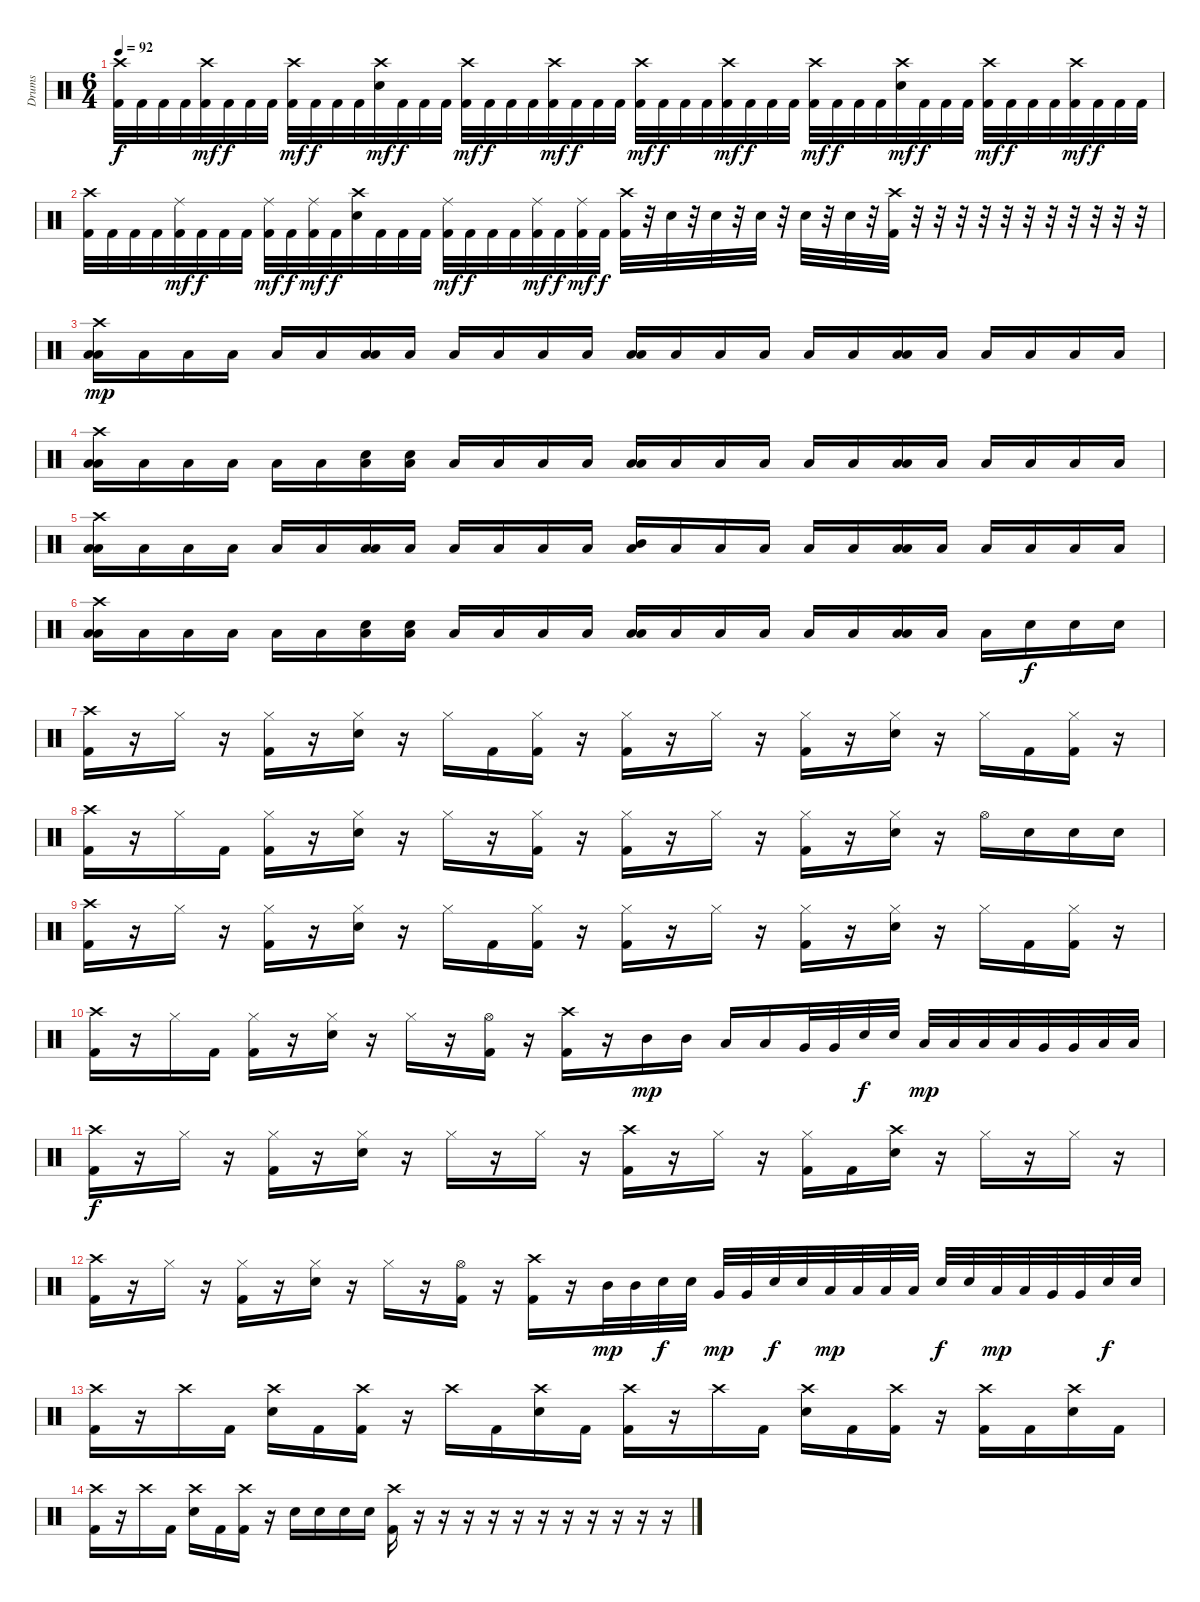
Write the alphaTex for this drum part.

\track ("Drums" "Drums") {instrument percussion}
\staff {score}
\articulation defaults
\ts (6 4)
\tempo 92
\clef neutral
\ks c
("Crash high (hit)" "Kick (hit) 2").32{dy f} "Kick (hit) 2".32 "Kick (hit) 2".32 "Kick (hit) 2".32 ("Crash high (hit)" "Kick (hit) 2").32{dy mf} "Kick (hit) 2".32{dy f} "Kick (hit) 2".32 "Kick (hit) 2".32 ("Crash high (hit)" "Kick (hit) 2").32{dy mf} "Kick (hit) 2".32{dy f} "Kick (hit) 2".32 "Kick (hit) 2".32 ("Crash high (hit)" "Electric Snare (hit)").32{dy mf} "Kick (hit) 2".32{dy f} "Kick (hit) 2".32 "Kick (hit) 2".32 ("Crash high (hit)" "Kick (hit) 2").32{dy mf} "Kick (hit) 2".32{dy f} "Kick (hit) 2".32 "Kick (hit) 2".32 ("Crash high (hit)" "Kick (hit) 2").32{dy mf} "Kick (hit) 2".32{dy f} "Kick (hit) 2".32 "Kick (hit) 2".32 ("Crash high (hit)" "Kick (hit) 2").32{dy mf} "Kick (hit) 2".32{dy f} "Kick (hit) 2".32 "Kick (hit) 2".32 ("Crash high (hit)" "Kick (hit) 2").32{dy mf} "Kick (hit) 2".32{dy f} "Kick (hit) 2".32 "Kick (hit) 2".32 ("Crash high (hit)" "Kick (hit) 2").32{dy mf} "Kick (hit) 2".32{dy f} "Kick (hit) 2".32 "Kick (hit) 2".32 ("Crash high (hit)" "Electric Snare (hit)").32{dy mf} "Kick (hit) 2".32{dy f} "Kick (hit) 2".32 "Kick (hit) 2".32 ("Crash high (hit)" "Kick (hit) 2").32{dy mf} "Kick (hit) 2".32{dy f} "Kick (hit) 2".32 "Kick (hit) 2".32 ("Crash high (hit)" "Kick (hit) 2").32{dy mf} "Kick (hit) 2".32{dy f} "Kick (hit) 2".32 "Kick (hit) 2".32 |
("Crash high (hit)" "Kick (hit) 2").32 "Kick (hit) 2".32 "Kick (hit) 2".32 "Kick (hit) 2".32 ("Ride (middle)" "Kick (hit) 2").32{dy mf} "Kick (hit) 2".32{dy f} "Kick (hit) 2".32 "Kick (hit) 2".32 ("Ride (middle)" "Kick (hit) 2").32{dy mf} "Kick (hit) 2".32{dy f} ("Ride (middle)" "Kick (hit) 2").32{dy mf} "Kick (hit) 2".32{dy f} ("Crash high (hit)" "Electric Snare (hit)").32 "Kick (hit) 2".32 "Kick (hit) 2".32 "Kick (hit) 2".32 ("Ride (middle)" "Kick (hit) 2").32{dy mf} "Kick (hit) 2".32{dy f} "Kick (hit) 2".32 "Kick (hit) 2".32 ("Ride (middle)" "Kick (hit) 2").32{dy mf} "Kick (hit) 2".32{dy f} ("Ride (middle)" "Kick (hit) 2").32{dy mf} "Kick (hit) 2".32{dy f} ("Crash high (hit)" "Kick (hit) 2").32 r.32 "Electric Snare (hit)".32 r.32 "Electric Snare (hit)".32 r.32 "Electric Snare (hit)".32 r.32 "Electric Snare (hit)".32 r.32 "Electric Snare (hit)".32 r.32 ("Crash high (hit)" "Kick (hit) 2").32 r.32 r.32 r.32 r.32 r.32 r.32 r.32 r.32 r.32 r.32 r.32 |
("Crash high (hit)" "Low Tom (hit)" "Low Floor Tom (hit)").16{dy mp} "Low Floor Tom (hit)".16 "Low Floor Tom (hit)".16 "Low Floor Tom (hit)".16 "Low Floor Tom (hit)".16 "Low Floor Tom (hit)".16 ("Low Tom (hit)" "Low Floor Tom (hit)").16 "Low Floor Tom (hit)".16 "Low Floor Tom (hit)".16 "Low Floor Tom (hit)".16 "Low Floor Tom (hit)".16 "Low Floor Tom (hit)".16 ("Low Tom (hit)" "Low Floor Tom (hit)").16 "Low Floor Tom (hit)".16 "Low Floor Tom (hit)".16 "Low Floor Tom (hit)".16 "Low Floor Tom (hit)".16 "Low Floor Tom (hit)".16 ("Low Tom (hit)" "Low Floor Tom (hit)").16 "Low Floor Tom (hit)".16 "Low Floor Tom (hit)".16 "Low Floor Tom (hit)".16 "Low Floor Tom (hit)".16 "Low Floor Tom (hit)".16 |
("Crash high (hit)" "Low Tom (hit)" "Low Floor Tom (hit)").16 "Low Floor Tom (hit)".16 "Low Floor Tom (hit)".16 "Low Floor Tom (hit)".16 "Low Floor Tom (hit)".16 "Low Floor Tom (hit)".16 ("Electric Snare (hit)" "Low Floor Tom (hit)").16 ("Electric Snare (hit)" "Low Floor Tom (hit)").16 "Low Floor Tom (hit)".16 "Low Floor Tom (hit)".16 "Low Floor Tom (hit)".16 "Low Floor Tom (hit)".16 ("Low Tom (hit)" "Low Floor Tom (hit)").16 "Low Floor Tom (hit)".16 "Low Floor Tom (hit)".16 "Low Floor Tom (hit)".16 "Low Floor Tom (hit)".16 "Low Floor Tom (hit)".16 ("Low Tom (hit)" "Low Floor Tom (hit)").16 "Low Floor Tom (hit)".16 "Low Floor Tom (hit)".16 "Low Floor Tom (hit)".16 "Low Floor Tom (hit)".16 "Low Floor Tom (hit)".16 |
("Crash high (hit)" "Low Tom (hit)" "Low Floor Tom (hit)").16 "Low Floor Tom (hit)".16 "Low Floor Tom (hit)".16 "Low Floor Tom (hit)".16 "Low Floor Tom (hit)".16 "Low Floor Tom (hit)".16 ("Low Tom (hit)" "Low Floor Tom (hit)").16 "Low Floor Tom (hit)".16 "Low Floor Tom (hit)".16 "Low Floor Tom (hit)".16 "Low Floor Tom (hit)".16 "Low Floor Tom (hit)".16 ("Mid Tom (hit)" "Low Floor Tom (hit)").16 "Low Floor Tom (hit)".16 "Low Floor Tom (hit)".16 "Low Floor Tom (hit)".16 "Low Floor Tom (hit)".16 "Low Floor Tom (hit)".16 ("Low Tom (hit)" "Low Floor Tom (hit)").16 "Low Floor Tom (hit)".16 "Low Floor Tom (hit)".16 "Low Floor Tom (hit)".16 "Low Floor Tom (hit)".16 "Low Floor Tom (hit)".16 |
("Crash high (hit)" "Low Tom (hit)" "Low Floor Tom (hit)").16 "Low Floor Tom (hit)".16 "Low Floor Tom (hit)".16 "Low Floor Tom (hit)".16 "Low Floor Tom (hit)".16 "Low Floor Tom (hit)".16 ("Electric Snare (hit)" "Low Floor Tom (hit)").16 ("Electric Snare (hit)" "Low Floor Tom (hit)").16 "Low Floor Tom (hit)".16 "Low Floor Tom (hit)".16 "Low Floor Tom (hit)".16 "Low Floor Tom (hit)".16 ("Low Tom (hit)" "Low Floor Tom (hit)").16 "Low Floor Tom (hit)".16 "Low Floor Tom (hit)".16 "Low Floor Tom (hit)".16 "Low Floor Tom (hit)".16 "Low Floor Tom (hit)".16 ("Low Tom (hit)" "Low Floor Tom (hit)").16 "Low Floor Tom (hit)".16 "Low Floor Tom (hit)".16 "Electric Snare (hit)".16{dy f} "Electric Snare (hit)".16 "Electric Snare (hit)".16 |
("Crash high (hit)" "Kick (hit) 2").16 r.16 "Hi-Hat (closed)".16 r.16 ("Hi-Hat (closed)" "Kick (hit) 2").16 r.16 ("Hi-Hat (closed)" "Electric Snare (hit)").16 r.16 "Hi-Hat (closed)".16 "Kick (hit) 2".16 ("Hi-Hat (closed)" "Kick (hit) 2").16 r.16 ("Hi-Hat (closed)" "Kick (hit) 2").16 r.16 "Hi-Hat (closed)".16 r.16 ("Hi-Hat (closed)" "Kick (hit) 2").16 r.16 ("Hi-Hat (closed)" "Electric Snare (hit)").16 r.16 "Hi-Hat (closed)".16 "Kick (hit) 2".16 ("Hi-Hat (closed)" "Kick (hit) 2").16 r.16 |
("Crash high (hit)" "Kick (hit) 2").16 r.16 "Hi-Hat (closed)".16 "Kick (hit) 2".16 ("Hi-Hat (closed)" "Kick (hit) 2").16 r.16 ("Hi-Hat (closed)" "Electric Snare (hit)").16 r.16 "Hi-Hat (closed)".16 r.16 ("Hi-Hat (closed)" "Kick (hit) 2").16 r.16 ("Hi-Hat (closed)" "Kick (hit) 2").16 r.16 "Hi-Hat (closed)".16 r.16 ("Hi-Hat (closed)" "Kick (hit) 2").16 r.16 ("Hi-Hat (closed)" "Electric Snare (hit)").16 r.16 "Hi-Hat (open)".16 "Electric Snare (hit)".16 "Electric Snare (hit)".16 "Electric Snare (hit)".16 |
("Crash high (hit)" "Kick (hit) 2").16 r.16 "Hi-Hat (closed)".16 r.16 ("Hi-Hat (closed)" "Kick (hit) 2").16 r.16 ("Hi-Hat (closed)" "Electric Snare (hit)").16 r.16 "Hi-Hat (closed)".16 "Kick (hit) 2".16 ("Hi-Hat (closed)" "Kick (hit) 2").16 r.16 ("Hi-Hat (closed)" "Kick (hit) 2").16 r.16 "Hi-Hat (closed)".16 r.16 ("Hi-Hat (closed)" "Kick (hit) 2").16 r.16 ("Hi-Hat (closed)" "Electric Snare (hit)").16 r.16 "Hi-Hat (closed)".16 "Kick (hit) 2".16 ("Hi-Hat (closed)" "Kick (hit) 2").16 r.16 |
("Crash high (hit)" "Kick (hit) 2").16 r.16 "Hi-Hat (closed)".16 "Kick (hit) 2".16 ("Hi-Hat (closed)" "Kick (hit) 2").16 r.16 ("Hi-Hat (closed)" "Electric Snare (hit)").16 r.16 "Hi-Hat (closed)".16 r.16 ("Hi-Hat (open)" "Kick (hit) 2").16 r.16 ("Crash high (hit)" "Kick (hit) 2").16 r.16 "Mid Tom (hit)".16{dy mp} "Mid Tom (hit)".16 "Low Tom (hit)".16 "Low Tom (hit)".16 "Very Low Tom (hit)".32 "Very Low Tom (hit)".32 "Electric Snare (hit)".32{dy f} "Electric Snare (hit)".32 "Low Floor Tom (hit)".32{dy mp} "Low Floor Tom (hit)".32 "Low Tom (hit)".32 "Low Tom (hit)".32 "Very Low Tom (hit)".32 "Very Low Tom (hit)".32 "Low Floor Tom (hit)".32 "Low Floor Tom (hit)".32 |
("Crash high (hit)" "Kick (hit) 2").16{dy f} r.16 "Hi-Hat (closed)".16 r.16 ("Hi-Hat (closed)" "Kick (hit) 2").16 r.16 ("Hi-Hat (closed)" "Electric Snare (hit)").16 r.16 "Hi-Hat (closed)".16 r.16 "Hi-Hat (closed)".16 r.16 ("Crash high (hit)" "Kick (hit) 2").16 r.16 "Hi-Hat (closed)".16 r.16 ("Hi-Hat (closed)" "Kick (hit) 2").16 "Kick (hit) 2".16 ("Crash high (hit)" "Electric Snare (hit)").16 r.16 "Hi-Hat (closed)".16 r.16 "Hi-Hat (closed)".16 r.16 |
("Crash high (hit)" "Kick (hit) 2").16 r.16 "Hi-Hat (closed)".16 r.16 ("Hi-Hat (closed)" "Kick (hit) 2").16 r.16 ("Hi-Hat (closed)" "Electric Snare (hit)").16 r.16 "Hi-Hat (closed)".16 r.16 ("Hi-Hat (open)" "Kick (hit) 2").16 r.16 ("Crash high (hit)" "Kick (hit) 2").16 r.16 "Mid Tom (hit)".32{dy mp} "Mid Tom (hit)".32 "Electric Snare (hit)".32{dy f} "Electric Snare (hit)".32 "Very Low Tom (hit)".32{dy mp} "Very Low Tom (hit)".32 "Electric Snare (hit)".32{dy f} "Electric Snare (hit)".32 "Low Floor Tom (hit)".32{dy mp} "Low Floor Tom (hit)".32 "Low Tom (hit)".32 "Low Tom (hit)".32 "Electric Snare (hit)".32{dy f} "Electric Snare (hit)".32 "Low Floor Tom (hit)".32{dy mp} "Low Floor Tom (hit)".32 "Very Low Tom (hit)".32 "Very Low Tom (hit)".32 "Electric Snare (hit)".32{dy f} "Electric Snare (hit)".32 |
("Crash high (hit)" "Kick (hit) 2").16 r.16 "Crash high (hit)".16 "Kick (hit) 2".16 ("Crash high (hit)" "Electric Snare (hit)").16 "Kick (hit) 2".16 ("Crash high (hit)" "Kick (hit) 2").16 r.16 "Crash high (hit)".16 "Kick (hit) 2".16 ("Crash high (hit)" "Electric Snare (hit)").16 "Kick (hit) 2".16 ("Crash high (hit)" "Kick (hit) 2").16 r.16 "Crash high (hit)".16 "Kick (hit) 2".16 ("Crash high (hit)" "Electric Snare (hit)").16 "Kick (hit) 2".16 ("Crash high (hit)" "Kick (hit) 2").16 r.16 ("Crash high (hit)" "Kick (hit) 2").16 "Kick (hit) 2".16 ("Crash high (hit)" "Electric Snare (hit)").16 "Kick (hit) 2".16 |
("Crash high (hit)" "Kick (hit) 2").16 r.16 "Crash high (hit)".16 "Kick (hit) 2".16 ("Crash high (hit)" "Electric Snare (hit)").16 "Kick (hit) 2".16 ("Crash high (hit)" "Kick (hit) 2").16 r.16 "Electric Snare (hit)".16 "Electric Snare (hit)".16 "Electric Snare (hit)".16 "Electric Snare (hit)".16 ("Crash high (hit)" "Kick (hit) 2").16 r.16 r.16 r.16 r.16 r.16 r.16 r.16 r.16 r.16 r.16 r.16
